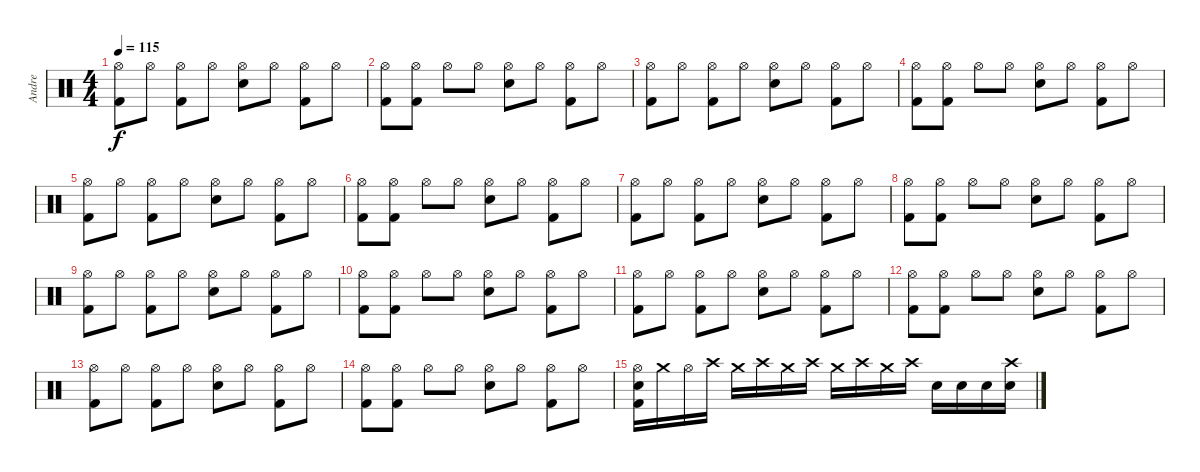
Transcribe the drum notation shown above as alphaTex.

\track ("Andre" "Andre") {instrument percussion}
\staff {score}
\articulation defaults
\ts (4 4)
\tempo 115
\clef neutral
\ks c
("Kick (hit) 2" "Hi-Hat (open)").8{dy f} "Hi-Hat (open)".8 ("Kick (hit) 2" "Hi-Hat (open)").8 "Hi-Hat (open)".8 ("Electric Snare (hit)" "Hi-Hat (open)").8 "Hi-Hat (open)".8 ("Kick (hit) 2" "Hi-Hat (open)").8 "Hi-Hat (open)".8 |
("Kick (hit) 2" "Hi-Hat (open)").8 ("Kick (hit) 2" "Hi-Hat (open)").8 "Hi-Hat (open)".8 "Hi-Hat (open)".8 ("Electric Snare (hit)" "Hi-Hat (open)").8 "Hi-Hat (open)".8 ("Kick (hit) 2" "Hi-Hat (open)").8 "Hi-Hat (open)".8 |
("Kick (hit) 2" "Hi-Hat (open)").8 "Hi-Hat (open)".8 ("Kick (hit) 2" "Hi-Hat (open)").8 "Hi-Hat (open)".8 ("Electric Snare (hit)" "Hi-Hat (open)").8 "Hi-Hat (open)".8 ("Kick (hit) 2" "Hi-Hat (open)").8 "Hi-Hat (open)".8 |
("Kick (hit) 2" "Hi-Hat (open)").8 ("Kick (hit) 2" "Hi-Hat (open)").8 "Hi-Hat (open)".8 "Hi-Hat (open)".8 ("Electric Snare (hit)" "Hi-Hat (open)").8 "Hi-Hat (open)".8 ("Kick (hit) 2" "Hi-Hat (open)").8 "Hi-Hat (open)".8 |
("Kick (hit) 2" "Hi-Hat (open)").8 "Hi-Hat (open)".8 ("Kick (hit) 2" "Hi-Hat (open)").8 "Hi-Hat (open)".8 ("Electric Snare (hit)" "Hi-Hat (open)").8 "Hi-Hat (open)".8 ("Kick (hit) 2" "Hi-Hat (open)").8 "Hi-Hat (open)".8 |
("Kick (hit) 2" "Hi-Hat (open)").8 ("Kick (hit) 2" "Hi-Hat (open)").8 "Hi-Hat (open)".8 "Hi-Hat (open)".8 ("Electric Snare (hit)" "Hi-Hat (open)").8 "Hi-Hat (open)".8 ("Kick (hit) 2" "Hi-Hat (open)").8 "Hi-Hat (open)".8 |
("Kick (hit) 2" "Hi-Hat (open)").8 "Hi-Hat (open)".8 ("Kick (hit) 2" "Hi-Hat (open)").8 "Hi-Hat (open)".8 ("Electric Snare (hit)" "Hi-Hat (open)").8 "Hi-Hat (open)".8 ("Kick (hit) 2" "Hi-Hat (open)").8 "Hi-Hat (open)".8 |
("Kick (hit) 2" "Hi-Hat (open)").8 ("Kick (hit) 2" "Hi-Hat (open)").8 "Hi-Hat (open)".8 "Hi-Hat (open)".8 ("Electric Snare (hit)" "Hi-Hat (open)").8 "Hi-Hat (open)".8 ("Kick (hit) 2" "Hi-Hat (open)").8 "Hi-Hat (open)".8 |
("Kick (hit) 2" "Hi-Hat (open)").8 "Hi-Hat (open)".8 ("Kick (hit) 2" "Hi-Hat (open)").8 "Hi-Hat (open)".8 ("Electric Snare (hit)" "Hi-Hat (open)").8 "Hi-Hat (open)".8 ("Kick (hit) 2" "Hi-Hat (open)").8 "Hi-Hat (open)".8 |
("Kick (hit) 2" "Hi-Hat (open)").8 ("Kick (hit) 2" "Hi-Hat (open)").8 "Hi-Hat (open)".8 "Hi-Hat (open)".8 ("Electric Snare (hit)" "Hi-Hat (open)").8 "Hi-Hat (open)".8 ("Kick (hit) 2" "Hi-Hat (open)").8 "Hi-Hat (open)".8 |
("Kick (hit) 2" "Hi-Hat (open)").8 "Hi-Hat (open)".8 ("Kick (hit) 2" "Hi-Hat (open)").8 "Hi-Hat (open)".8 ("Electric Snare (hit)" "Hi-Hat (open)").8 "Hi-Hat (open)".8 ("Kick (hit) 2" "Hi-Hat (open)").8 "Hi-Hat (open)".8 |
("Kick (hit) 2" "Hi-Hat (open)").8 ("Kick (hit) 2" "Hi-Hat (open)").8 "Hi-Hat (open)".8 "Hi-Hat (open)".8 ("Electric Snare (hit)" "Hi-Hat (open)").8 "Hi-Hat (open)".8 ("Kick (hit) 2" "Hi-Hat (open)").8 "Hi-Hat (open)".8 |
("Kick (hit) 2" "Hi-Hat (open)").8 "Hi-Hat (open)".8 ("Kick (hit) 2" "Hi-Hat (open)").8 "Hi-Hat (open)".8 ("Electric Snare (hit)" "Hi-Hat (open)").8 "Hi-Hat (open)".8 ("Kick (hit) 2" "Hi-Hat (open)").8 "Hi-Hat (open)".8 |
("Kick (hit) 2" "Hi-Hat (open)").8 ("Kick (hit) 2" "Hi-Hat (open)").8 "Hi-Hat (open)".8 "Hi-Hat (open)".8 ("Electric Snare (hit)" "Hi-Hat (open)").8 "Hi-Hat (open)".8 ("Kick (hit) 2" "Hi-Hat (open)").8 "Hi-Hat (open)".8 |
("Hi-Hat (open)" "Electric Snare (hit)" "Kick (hit) 2").16 "Crash medium (hit)".16 "Hi-Hat (open)".16 "Crash high (hit)".16 "Crash medium (hit)".16 "Crash high (hit)".16 "Crash medium (hit)".16 "Crash high (hit)".16 "Crash medium (hit)".16 "Crash high (hit)".16 "Crash medium (hit)".16 "Crash high (hit)".16 "Electric Snare (hit)".16 "Electric Snare (hit)".16 "Electric Snare (hit)".16 ("Crash high (hit)" "Electric Snare (hit)").16
